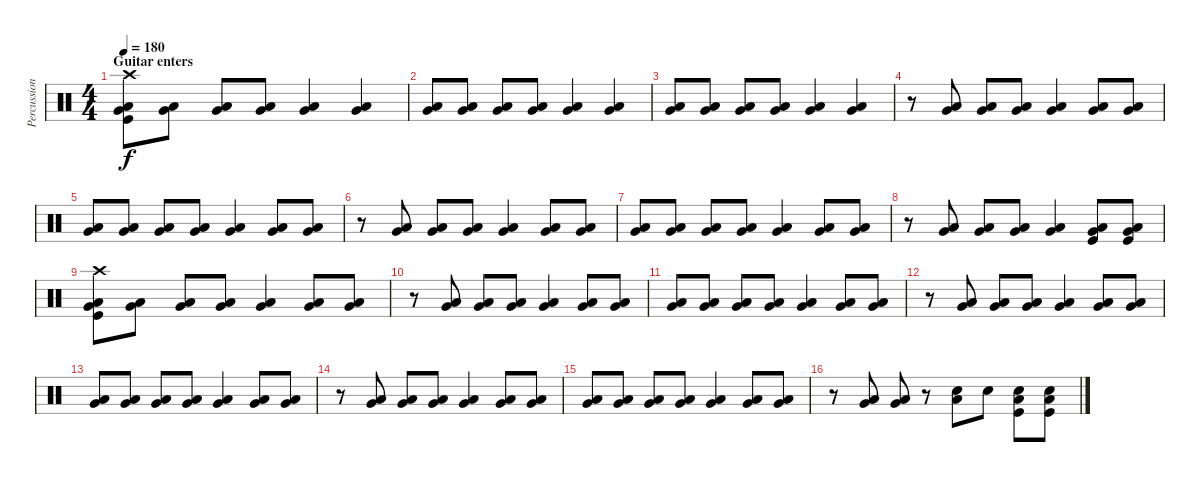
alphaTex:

\track ("Percussion" "Percussion") {instrument percussion}
\staff {score}
\articulation defaults
\ts (4 4)
\section ("" "Guitar enters")
\tempo 180
\clef neutral
\ks c
("Crash high (hit)" "Very Low Tom (hit)" "Low Floor Tom (hit)" "Kick (hit)").8{dy f} ("Very Low Tom (hit)" "Low Floor Tom (hit)").8 ("Very Low Tom (hit)" "Low Floor Tom (hit)").8 ("Very Low Tom (hit)" "Low Floor Tom (hit)").8 ("Very Low Tom (hit)" "Low Floor Tom (hit)").4 ("Very Low Tom (hit)" "Low Floor Tom (hit)").4 |
("Very Low Tom (hit)" "Low Floor Tom (hit)").8 ("Very Low Tom (hit)" "Low Floor Tom (hit)").8 ("Very Low Tom (hit)" "Low Floor Tom (hit)").8 ("Very Low Tom (hit)" "Low Floor Tom (hit)").8 ("Very Low Tom (hit)" "Low Floor Tom (hit)").4 ("Very Low Tom (hit)" "Low Floor Tom (hit)").4 |
("Very Low Tom (hit)" "Low Floor Tom (hit)").8 ("Very Low Tom (hit)" "Low Floor Tom (hit)").8 ("Very Low Tom (hit)" "Low Floor Tom (hit)").8 ("Very Low Tom (hit)" "Low Floor Tom (hit)").8 ("Very Low Tom (hit)" "Low Floor Tom (hit)").4 ("Very Low Tom (hit)" "Low Floor Tom (hit)").4 |
r.8 ("Very Low Tom (hit)" "Low Floor Tom (hit)").8 ("Very Low Tom (hit)" "Low Floor Tom (hit)").8 ("Very Low Tom (hit)" "Low Floor Tom (hit)").8 ("Very Low Tom (hit)" "Low Floor Tom (hit)").4 ("Very Low Tom (hit)" "Low Floor Tom (hit)").8 ("Very Low Tom (hit)" "Low Floor Tom (hit)").8 |
("Very Low Tom (hit)" "Low Floor Tom (hit)").8 ("Very Low Tom (hit)" "Low Floor Tom (hit)").8 ("Very Low Tom (hit)" "Low Floor Tom (hit)").8 ("Very Low Tom (hit)" "Low Floor Tom (hit)").8 ("Very Low Tom (hit)" "Low Floor Tom (hit)").4 ("Very Low Tom (hit)" "Low Floor Tom (hit)").8 ("Very Low Tom (hit)" "Low Floor Tom (hit)").8 |
r.8 ("Very Low Tom (hit)" "Low Floor Tom (hit)").8 ("Very Low Tom (hit)" "Low Floor Tom (hit)").8 ("Very Low Tom (hit)" "Low Floor Tom (hit)").8 ("Very Low Tom (hit)" "Low Floor Tom (hit)").4 ("Very Low Tom (hit)" "Low Floor Tom (hit)").8 ("Very Low Tom (hit)" "Low Floor Tom (hit)").8 |
("Very Low Tom (hit)" "Low Floor Tom (hit)").8 ("Very Low Tom (hit)" "Low Floor Tom (hit)").8 ("Very Low Tom (hit)" "Low Floor Tom (hit)").8 ("Very Low Tom (hit)" "Low Floor Tom (hit)").8 ("Very Low Tom (hit)" "Low Floor Tom (hit)").4 ("Very Low Tom (hit)" "Low Floor Tom (hit)").8 ("Very Low Tom (hit)" "Low Floor Tom (hit)").8 |
r.8 ("Very Low Tom (hit)" "Low Floor Tom (hit)").8 ("Very Low Tom (hit)" "Low Floor Tom (hit)").8 ("Very Low Tom (hit)" "Low Floor Tom (hit)").8 ("Very Low Tom (hit)" "Low Floor Tom (hit)").4 ("Very Low Tom (hit)" "Low Floor Tom (hit)" "Kick (hit)").8 ("Very Low Tom (hit)" "Low Floor Tom (hit)" "Kick (hit)").8 |
("Crash high (hit)" "Very Low Tom (hit)" "Low Floor Tom (hit)" "Kick (hit)").8 ("Very Low Tom (hit)" "Low Floor Tom (hit)").8 ("Very Low Tom (hit)" "Low Floor Tom (hit)").8 ("Very Low Tom (hit)" "Low Floor Tom (hit)").8 ("Very Low Tom (hit)" "Low Floor Tom (hit)").4 ("Very Low Tom (hit)" "Low Floor Tom (hit)").8 ("Very Low Tom (hit)" "Low Floor Tom (hit)").8 |
r.8 ("Very Low Tom (hit)" "Low Floor Tom (hit)").8 ("Very Low Tom (hit)" "Low Floor Tom (hit)").8 ("Very Low Tom (hit)" "Low Floor Tom (hit)").8 ("Very Low Tom (hit)" "Low Floor Tom (hit)").4 ("Very Low Tom (hit)" "Low Floor Tom (hit)").8 ("Very Low Tom (hit)" "Low Floor Tom (hit)").8 |
("Very Low Tom (hit)" "Low Floor Tom (hit)").8 ("Very Low Tom (hit)" "Low Floor Tom (hit)").8 ("Very Low Tom (hit)" "Low Floor Tom (hit)").8 ("Very Low Tom (hit)" "Low Floor Tom (hit)").8 ("Very Low Tom (hit)" "Low Floor Tom (hit)").4 ("Very Low Tom (hit)" "Low Floor Tom (hit)").8 ("Very Low Tom (hit)" "Low Floor Tom (hit)").8 |
r.8 ("Very Low Tom (hit)" "Low Floor Tom (hit)").8 ("Very Low Tom (hit)" "Low Floor Tom (hit)").8 ("Very Low Tom (hit)" "Low Floor Tom (hit)").8 ("Very Low Tom (hit)" "Low Floor Tom (hit)").4 ("Very Low Tom (hit)" "Low Floor Tom (hit)").8 ("Very Low Tom (hit)" "Low Floor Tom (hit)").8 |
("Very Low Tom (hit)" "Low Floor Tom (hit)").8 ("Very Low Tom (hit)" "Low Floor Tom (hit)").8 ("Very Low Tom (hit)" "Low Floor Tom (hit)").8 ("Very Low Tom (hit)" "Low Floor Tom (hit)").8 ("Very Low Tom (hit)" "Low Floor Tom (hit)").4 ("Very Low Tom (hit)" "Low Floor Tom (hit)").8 ("Very Low Tom (hit)" "Low Floor Tom (hit)").8 |
r.8 ("Very Low Tom (hit)" "Low Floor Tom (hit)").8 ("Very Low Tom (hit)" "Low Floor Tom (hit)").8 ("Very Low Tom (hit)" "Low Floor Tom (hit)").8 ("Very Low Tom (hit)" "Low Floor Tom (hit)").4 ("Very Low Tom (hit)" "Low Floor Tom (hit)").8 ("Very Low Tom (hit)" "Low Floor Tom (hit)").8 |
("Very Low Tom (hit)" "Low Floor Tom (hit)").8 ("Very Low Tom (hit)" "Low Floor Tom (hit)").8 ("Very Low Tom (hit)" "Low Floor Tom (hit)").8 ("Very Low Tom (hit)" "Low Floor Tom (hit)").8 ("Very Low Tom (hit)" "Low Floor Tom (hit)").4 ("Very Low Tom (hit)" "Low Floor Tom (hit)").8 ("Very Low Tom (hit)" "Low Floor Tom (hit)").8 |
r.8 ("Very Low Tom (hit)" "Low Floor Tom (hit)").8 ("Very Low Tom (hit)" "Low Floor Tom (hit)").8 r.8 ("Snare (hit) 2" "Low Floor Tom (hit)").8 "Snare (hit) 2".8 ("Snare (hit) 2" "Low Floor Tom (hit)" "Kick (hit)").8 ("Snare (hit) 2" "Low Floor Tom (hit)" "Kick (hit)").8
